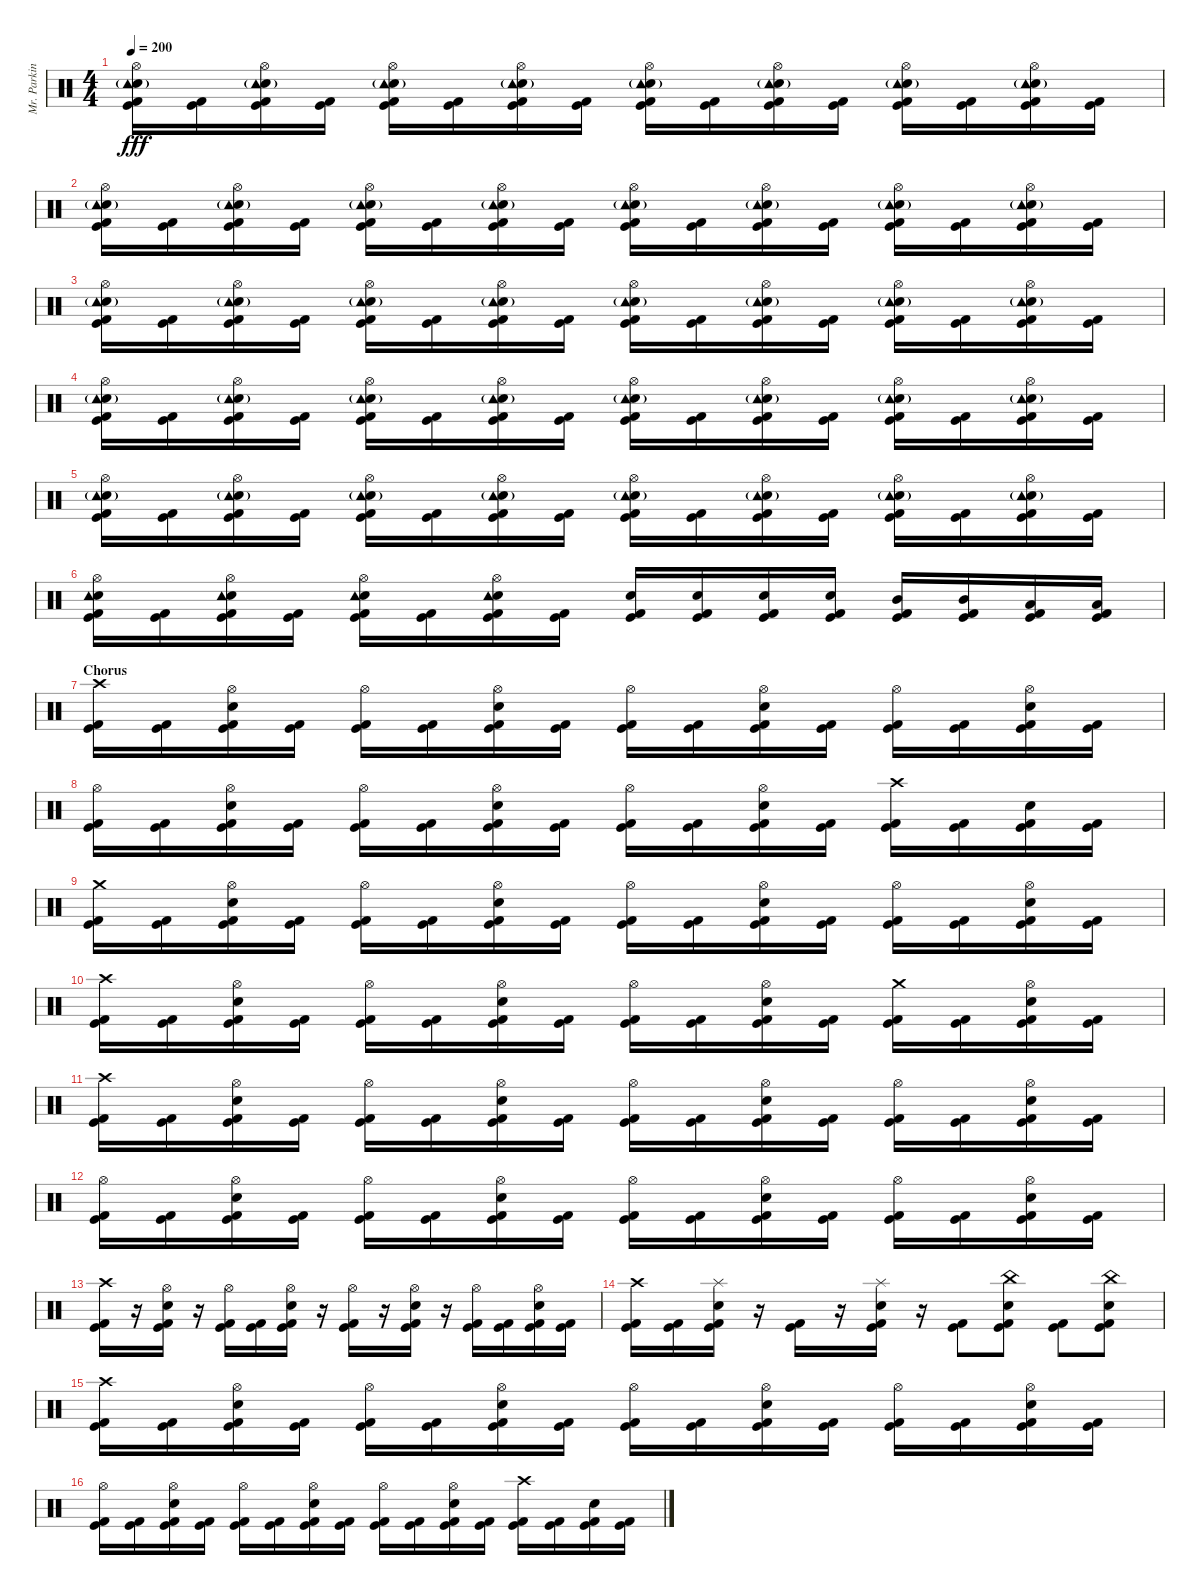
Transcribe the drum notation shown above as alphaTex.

\track ("Mr. Parkinson" "Mr. Parkin") {instrument percussion}
\staff {score}
\articulation defaults
\ts (4 4)
\tempo 200
\clef neutral
\ks c
("Hi-Hat (open)" "Electric Snare (hit)" "Tambourine (hit)"{g} "Kick (hit)" "Kick (hit) 2").16{dy fff} ("Kick (hit)" "Kick (hit) 2").16 ("Hi-Hat (open)" "Electric Snare (hit)" "Tambourine (hit)"{g} "Kick (hit)" "Kick (hit) 2").16 ("Kick (hit)" "Kick (hit) 2").16 ("Hi-Hat (open)" "Electric Snare (hit)" "Tambourine (hit)"{g} "Kick (hit)" "Kick (hit) 2").16 ("Kick (hit)" "Kick (hit) 2").16 ("Hi-Hat (open)" "Electric Snare (hit)" "Tambourine (hit)"{g} "Kick (hit)" "Kick (hit) 2").16 ("Kick (hit)" "Kick (hit) 2").16 ("Hi-Hat (open)" "Electric Snare (hit)" "Tambourine (hit)"{g} "Kick (hit)" "Kick (hit) 2").16 ("Kick (hit)" "Kick (hit) 2").16 ("Hi-Hat (open)" "Electric Snare (hit)" "Tambourine (hit)"{g} "Kick (hit)" "Kick (hit) 2").16 ("Kick (hit)" "Kick (hit) 2").16 ("Hi-Hat (open)" "Electric Snare (hit)" "Tambourine (hit)"{g} "Kick (hit)" "Kick (hit) 2").16 ("Kick (hit)" "Kick (hit) 2").16 ("Hi-Hat (open)" "Electric Snare (hit)" "Tambourine (hit)"{g} "Kick (hit)" "Kick (hit) 2").16 ("Kick (hit)" "Kick (hit) 2").16 |
("Hi-Hat (open)" "Electric Snare (hit)" "Tambourine (hit)"{g} "Kick (hit)" "Kick (hit) 2").16 ("Kick (hit)" "Kick (hit) 2").16 ("Hi-Hat (open)" "Electric Snare (hit)" "Tambourine (hit)"{g} "Kick (hit)" "Kick (hit) 2").16 ("Kick (hit)" "Kick (hit) 2").16 ("Hi-Hat (open)" "Electric Snare (hit)" "Tambourine (hit)"{g} "Kick (hit)" "Kick (hit) 2").16 ("Kick (hit)" "Kick (hit) 2").16 ("Hi-Hat (open)" "Electric Snare (hit)" "Tambourine (hit)"{g} "Kick (hit)" "Kick (hit) 2").16 ("Kick (hit)" "Kick (hit) 2").16 ("Hi-Hat (open)" "Electric Snare (hit)" "Tambourine (hit)"{g} "Kick (hit)" "Kick (hit) 2").16 ("Kick (hit)" "Kick (hit) 2").16 ("Hi-Hat (open)" "Electric Snare (hit)" "Tambourine (hit)"{g} "Kick (hit)" "Kick (hit) 2").16 ("Kick (hit)" "Kick (hit) 2").16 ("Hi-Hat (open)" "Electric Snare (hit)" "Tambourine (hit)"{g} "Kick (hit)" "Kick (hit) 2").16 ("Kick (hit)" "Kick (hit) 2").16 ("Hi-Hat (open)" "Electric Snare (hit)" "Tambourine (hit)"{g} "Kick (hit)" "Kick (hit) 2").16 ("Kick (hit)" "Kick (hit) 2").16 |
("Hi-Hat (open)" "Electric Snare (hit)" "Tambourine (hit)"{g} "Kick (hit)" "Kick (hit) 2").16 ("Kick (hit)" "Kick (hit) 2").16 ("Hi-Hat (open)" "Electric Snare (hit)" "Tambourine (hit)"{g} "Kick (hit)" "Kick (hit) 2").16 ("Kick (hit)" "Kick (hit) 2").16 ("Hi-Hat (open)" "Electric Snare (hit)" "Tambourine (hit)"{g} "Kick (hit)" "Kick (hit) 2").16 ("Kick (hit)" "Kick (hit) 2").16 ("Hi-Hat (open)" "Electric Snare (hit)" "Tambourine (hit)"{g} "Kick (hit)" "Kick (hit) 2").16 ("Kick (hit)" "Kick (hit) 2").16 ("Hi-Hat (open)" "Electric Snare (hit)" "Tambourine (hit)"{g} "Kick (hit)" "Kick (hit) 2").16 ("Kick (hit)" "Kick (hit) 2").16 ("Hi-Hat (open)" "Electric Snare (hit)" "Tambourine (hit)"{g} "Kick (hit)" "Kick (hit) 2").16 ("Kick (hit)" "Kick (hit) 2").16 ("Hi-Hat (open)" "Electric Snare (hit)" "Tambourine (hit)"{g} "Kick (hit)" "Kick (hit) 2").16 ("Kick (hit)" "Kick (hit) 2").16 ("Hi-Hat (open)" "Electric Snare (hit)" "Tambourine (hit)"{g} "Kick (hit)" "Kick (hit) 2").16 ("Kick (hit)" "Kick (hit) 2").16 |
("Hi-Hat (open)" "Electric Snare (hit)" "Tambourine (hit)"{g} "Kick (hit)" "Kick (hit) 2").16 ("Kick (hit)" "Kick (hit) 2").16 ("Hi-Hat (open)" "Electric Snare (hit)" "Tambourine (hit)"{g} "Kick (hit)" "Kick (hit) 2").16 ("Kick (hit)" "Kick (hit) 2").16 ("Hi-Hat (open)" "Electric Snare (hit)" "Tambourine (hit)"{g} "Kick (hit)" "Kick (hit) 2").16 ("Kick (hit)" "Kick (hit) 2").16 ("Hi-Hat (open)" "Electric Snare (hit)" "Tambourine (hit)"{g} "Kick (hit)" "Kick (hit) 2").16 ("Kick (hit)" "Kick (hit) 2").16 ("Hi-Hat (open)" "Electric Snare (hit)" "Tambourine (hit)"{g} "Kick (hit)" "Kick (hit) 2").16 ("Kick (hit)" "Kick (hit) 2").16 ("Hi-Hat (open)" "Electric Snare (hit)" "Tambourine (hit)"{g} "Kick (hit)" "Kick (hit) 2").16 ("Kick (hit)" "Kick (hit) 2").16 ("Hi-Hat (open)" "Electric Snare (hit)" "Tambourine (hit)"{g} "Kick (hit)" "Kick (hit) 2").16 ("Kick (hit)" "Kick (hit) 2").16 ("Hi-Hat (open)" "Electric Snare (hit)" "Tambourine (hit)"{g} "Kick (hit)" "Kick (hit) 2").16 ("Kick (hit)" "Kick (hit) 2").16 |
("Hi-Hat (open)" "Electric Snare (hit)" "Tambourine (hit)"{g} "Kick (hit)" "Kick (hit) 2").16 ("Kick (hit)" "Kick (hit) 2").16 ("Hi-Hat (open)" "Electric Snare (hit)" "Tambourine (hit)"{g} "Kick (hit)" "Kick (hit) 2").16 ("Kick (hit)" "Kick (hit) 2").16 ("Hi-Hat (open)" "Electric Snare (hit)" "Tambourine (hit)"{g} "Kick (hit)" "Kick (hit) 2").16 ("Kick (hit)" "Kick (hit) 2").16 ("Hi-Hat (open)" "Electric Snare (hit)" "Tambourine (hit)"{g} "Kick (hit)" "Kick (hit) 2").16 ("Kick (hit)" "Kick (hit) 2").16 ("Hi-Hat (open)" "Electric Snare (hit)" "Tambourine (hit)"{g} "Kick (hit)" "Kick (hit) 2").16 ("Kick (hit)" "Kick (hit) 2").16 ("Hi-Hat (open)" "Electric Snare (hit)" "Tambourine (hit)"{g} "Kick (hit)" "Kick (hit) 2").16 ("Kick (hit)" "Kick (hit) 2").16 ("Hi-Hat (open)" "Electric Snare (hit)" "Tambourine (hit)"{g} "Kick (hit)" "Kick (hit) 2").16 ("Kick (hit)" "Kick (hit) 2").16 ("Hi-Hat (open)" "Electric Snare (hit)" "Tambourine (hit)"{g} "Kick (hit)" "Kick (hit) 2").16 ("Kick (hit)" "Kick (hit) 2").16 |
("Hi-Hat (open)" "Electric Snare (hit)" "Tambourine (hit)" "Kick (hit)" "Kick (hit) 2").16 ("Kick (hit)" "Kick (hit) 2").16 ("Hi-Hat (open)" "Electric Snare (hit)" "Tambourine (hit)" "Kick (hit)" "Kick (hit) 2").16 ("Kick (hit)" "Kick (hit) 2").16 ("Hi-Hat (open)" "Electric Snare (hit)" "Tambourine (hit)" "Kick (hit)" "Kick (hit) 2").16 ("Kick (hit)" "Kick (hit) 2").16 ("Hi-Hat (open)" "Electric Snare (hit)" "Tambourine (hit)" "Kick (hit)" "Kick (hit) 2").16 ("Kick (hit)" "Kick (hit) 2").16 ("Electric Snare (hit)" "Kick (hit)" "Kick (hit) 2").16 ("Electric Snare (hit)" "Kick (hit)" "Kick (hit) 2").16 ("Electric Snare (hit)" "Kick (hit)" "Kick (hit) 2").16 ("Electric Snare (hit)" "Kick (hit)" "Kick (hit) 2").16 ("Mid Tom (hit)" "Kick (hit)" "Kick (hit) 2").16 ("Mid Tom (hit)" "Kick (hit)" "Kick (hit) 2").16 ("Low Tom (hit)" "Kick (hit)" "Kick (hit) 2").16 ("Low Tom (hit)" "Kick (hit)" "Kick (hit) 2").16 |
\section ("" "Chorus")
("Crash high (hit)" "Kick (hit)" "Kick (hit) 2").16 ("Kick (hit)" "Kick (hit) 2").16 ("Hi-Hat (open)" "Electric Snare (hit)" "Kick (hit)" "Kick (hit) 2").16 ("Kick (hit)" "Kick (hit) 2").16 ("Hi-Hat (open)" "Kick (hit)" "Kick (hit) 2").16 ("Kick (hit)" "Kick (hit) 2").16 ("Hi-Hat (open)" "Electric Snare (hit)" "Kick (hit)" "Kick (hit) 2").16 ("Kick (hit)" "Kick (hit) 2").16 ("Hi-Hat (open)" "Kick (hit)" "Kick (hit) 2").16 ("Kick (hit)" "Kick (hit) 2").16 ("Hi-Hat (open)" "Electric Snare (hit)" "Kick (hit)" "Kick (hit) 2").16 ("Kick (hit)" "Kick (hit) 2").16 ("Hi-Hat (open)" "Kick (hit)" "Kick (hit) 2").16 ("Kick (hit)" "Kick (hit) 2").16 ("Hi-Hat (open)" "Electric Snare (hit)" "Kick (hit)" "Kick (hit) 2").16 ("Kick (hit)" "Kick (hit) 2").16 |
("Hi-Hat (open)" "Kick (hit)" "Kick (hit) 2").16 ("Kick (hit)" "Kick (hit) 2").16 ("Hi-Hat (open)" "Electric Snare (hit)" "Kick (hit)" "Kick (hit) 2").16 ("Kick (hit)" "Kick (hit) 2").16 ("Hi-Hat (open)" "Kick (hit)" "Kick (hit) 2").16 ("Kick (hit)" "Kick (hit) 2").16 ("Hi-Hat (open)" "Electric Snare (hit)" "Kick (hit)" "Kick (hit) 2").16 ("Kick (hit)" "Kick (hit) 2").16 ("Hi-Hat (open)" "Kick (hit)" "Kick (hit) 2").16 ("Kick (hit)" "Kick (hit) 2").16 ("Hi-Hat (open)" "Electric Snare (hit)" "Kick (hit)" "Kick (hit) 2").16 ("Kick (hit)" "Kick (hit) 2").16 ("Crash high (hit)" "Kick (hit)" "Kick (hit) 2").16 ("Kick (hit)" "Kick (hit) 2").16 ("Electric Snare (hit)" "Kick (hit)" "Kick (hit) 2").16 ("Kick (hit)" "Kick (hit) 2").16 |
("Crash medium (hit)" "Kick (hit)" "Kick (hit) 2").16 ("Kick (hit)" "Kick (hit) 2").16 ("Hi-Hat (open)" "Electric Snare (hit)" "Kick (hit)" "Kick (hit) 2").16 ("Kick (hit)" "Kick (hit) 2").16 ("Hi-Hat (open)" "Kick (hit)" "Kick (hit) 2").16 ("Kick (hit)" "Kick (hit) 2").16 ("Hi-Hat (open)" "Electric Snare (hit)" "Kick (hit)" "Kick (hit) 2").16 ("Kick (hit)" "Kick (hit) 2").16 ("Hi-Hat (open)" "Kick (hit)" "Kick (hit) 2").16 ("Kick (hit)" "Kick (hit) 2").16 ("Hi-Hat (open)" "Electric Snare (hit)" "Kick (hit)" "Kick (hit) 2").16 ("Kick (hit)" "Kick (hit) 2").16 ("Hi-Hat (open)" "Kick (hit)" "Kick (hit) 2").16 ("Kick (hit)" "Kick (hit) 2").16 ("Hi-Hat (open)" "Electric Snare (hit)" "Kick (hit)" "Kick (hit) 2").16 ("Kick (hit)" "Kick (hit) 2").16 |
("Crash high (hit)" "Kick (hit)" "Kick (hit) 2").16 ("Kick (hit)" "Kick (hit) 2").16 ("Hi-Hat (open)" "Electric Snare (hit)" "Kick (hit)" "Kick (hit) 2").16 ("Kick (hit)" "Kick (hit) 2").16 ("Hi-Hat (open)" "Kick (hit)" "Kick (hit) 2").16 ("Kick (hit)" "Kick (hit) 2").16 ("Hi-Hat (open)" "Electric Snare (hit)" "Kick (hit)" "Kick (hit) 2").16 ("Kick (hit)" "Kick (hit) 2").16 ("Hi-Hat (open)" "Kick (hit)" "Kick (hit) 2").16 ("Kick (hit)" "Kick (hit) 2").16 ("Hi-Hat (open)" "Electric Snare (hit)" "Kick (hit)" "Kick (hit) 2").16 ("Kick (hit)" "Kick (hit) 2").16 ("Crash medium (hit)" "Kick (hit)" "Kick (hit) 2").16 ("Kick (hit)" "Kick (hit) 2").16 ("Hi-Hat (open)" "Electric Snare (hit)" "Kick (hit)" "Kick (hit) 2").16 ("Kick (hit)" "Kick (hit) 2").16 |
("Crash high (hit)" "Kick (hit)" "Kick (hit) 2").16 ("Kick (hit)" "Kick (hit) 2").16 ("Hi-Hat (open)" "Electric Snare (hit)" "Kick (hit)" "Kick (hit) 2").16 ("Kick (hit)" "Kick (hit) 2").16 ("Hi-Hat (open)" "Kick (hit)" "Kick (hit) 2").16 ("Kick (hit)" "Kick (hit) 2").16 ("Hi-Hat (open)" "Electric Snare (hit)" "Kick (hit)" "Kick (hit) 2").16 ("Kick (hit)" "Kick (hit) 2").16 ("Hi-Hat (open)" "Kick (hit)" "Kick (hit) 2").16 ("Kick (hit)" "Kick (hit) 2").16 ("Hi-Hat (open)" "Electric Snare (hit)" "Kick (hit)" "Kick (hit) 2").16 ("Kick (hit)" "Kick (hit) 2").16 ("Hi-Hat (open)" "Kick (hit)" "Kick (hit) 2").16 ("Kick (hit)" "Kick (hit) 2").16 ("Hi-Hat (open)" "Electric Snare (hit)" "Kick (hit)" "Kick (hit) 2").16 ("Kick (hit)" "Kick (hit) 2").16 |
("Hi-Hat (open)" "Kick (hit)" "Kick (hit) 2").16 ("Kick (hit)" "Kick (hit) 2").16 ("Hi-Hat (open)" "Electric Snare (hit)" "Kick (hit)" "Kick (hit) 2").16 ("Kick (hit)" "Kick (hit) 2").16 ("Hi-Hat (open)" "Kick (hit)" "Kick (hit) 2").16 ("Kick (hit)" "Kick (hit) 2").16 ("Hi-Hat (open)" "Electric Snare (hit)" "Kick (hit)" "Kick (hit) 2").16 ("Kick (hit)" "Kick (hit) 2").16 ("Hi-Hat (open)" "Kick (hit)" "Kick (hit) 2").16 ("Kick (hit)" "Kick (hit) 2").16 ("Hi-Hat (open)" "Electric Snare (hit)" "Kick (hit)" "Kick (hit) 2").16 ("Kick (hit)" "Kick (hit) 2").16 ("Hi-Hat (open)" "Kick (hit)" "Kick (hit) 2").16 ("Kick (hit)" "Kick (hit) 2").16 ("Hi-Hat (open)" "Electric Snare (hit)" "Kick (hit)" "Kick (hit) 2").16 ("Kick (hit)" "Kick (hit) 2").16 |
("Crash high (hit)" "Kick (hit)" "Kick (hit) 2").16 r.16 ("Hi-Hat (open)" "Electric Snare (hit)" "Kick (hit)" "Kick (hit) 2").16 r.16 ("Hi-Hat (open)" "Kick (hit)" "Kick (hit) 2").16 ("Kick (hit)" "Kick (hit) 2").16 ("Hi-Hat (open)" "Electric Snare (hit)" "Kick (hit)" "Kick (hit) 2").16 r.16 ("Hi-Hat (open)" "Kick (hit)" "Kick (hit) 2").16 r.16 ("Hi-Hat (open)" "Electric Snare (hit)" "Kick (hit)" "Kick (hit) 2").16 r.16 ("Hi-Hat (open)" "Kick (hit)" "Kick (hit) 2").16 ("Kick (hit)" "Kick (hit) 2").16 ("Hi-Hat (open)" "Electric Snare (hit)" "Kick (hit)" "Kick (hit) 2").16 ("Kick (hit)" "Kick (hit) 2").16 |
("Crash high (hit)" "Kick (hit)" "Kick (hit) 2").16 ("Kick (hit)" "Kick (hit) 2").16 ("Splash (hit)" "Electric Snare (hit)" "Kick (hit)" "Kick (hit) 2").16 r.16 ("Kick (hit)" "Kick (hit) 2").16 r.16 ("Splash (hit)" "Electric Snare (hit)" "Kick (hit)" "Kick (hit) 2").16 r.16 ("Kick (hit)" "Kick (hit) 2").8 ("China (hit)" "Electric Snare (hit)" "Kick (hit)" "Kick (hit) 2").8 ("Kick (hit)" "Kick (hit) 2").8 ("China (hit)" "Electric Snare (hit)" "Kick (hit)" "Kick (hit) 2").8 |
("Crash high (hit)" "Kick (hit)" "Kick (hit) 2").16 ("Kick (hit)" "Kick (hit) 2").16 ("Hi-Hat (open)" "Electric Snare (hit)" "Kick (hit)" "Kick (hit) 2").16 ("Kick (hit)" "Kick (hit) 2").16 ("Hi-Hat (open)" "Kick (hit)" "Kick (hit) 2").16 ("Kick (hit)" "Kick (hit) 2").16 ("Hi-Hat (open)" "Electric Snare (hit)" "Kick (hit)" "Kick (hit) 2").16 ("Kick (hit)" "Kick (hit) 2").16 ("Hi-Hat (open)" "Kick (hit)" "Kick (hit) 2").16 ("Kick (hit)" "Kick (hit) 2").16 ("Hi-Hat (open)" "Electric Snare (hit)" "Kick (hit)" "Kick (hit) 2").16 ("Kick (hit)" "Kick (hit) 2").16 ("Hi-Hat (open)" "Kick (hit)" "Kick (hit) 2").16 ("Kick (hit)" "Kick (hit) 2").16 ("Hi-Hat (open)" "Electric Snare (hit)" "Kick (hit)" "Kick (hit) 2").16 ("Kick (hit)" "Kick (hit) 2").16 |
("Hi-Hat (open)" "Kick (hit)" "Kick (hit) 2").16 ("Kick (hit)" "Kick (hit) 2").16 ("Hi-Hat (open)" "Electric Snare (hit)" "Kick (hit)" "Kick (hit) 2").16 ("Kick (hit)" "Kick (hit) 2").16 ("Hi-Hat (open)" "Kick (hit)" "Kick (hit) 2").16 ("Kick (hit)" "Kick (hit) 2").16 ("Hi-Hat (open)" "Electric Snare (hit)" "Kick (hit)" "Kick (hit) 2").16 ("Kick (hit)" "Kick (hit) 2").16 ("Hi-Hat (open)" "Kick (hit)" "Kick (hit) 2").16 ("Kick (hit)" "Kick (hit) 2").16 ("Hi-Hat (open)" "Electric Snare (hit)" "Kick (hit)" "Kick (hit) 2").16 ("Kick (hit)" "Kick (hit) 2").16 ("Crash high (hit)" "Kick (hit)" "Kick (hit) 2").16 ("Kick (hit)" "Kick (hit) 2").16 ("Electric Snare (hit)" "Kick (hit)" "Kick (hit) 2").16 ("Kick (hit)" "Kick (hit) 2").16
